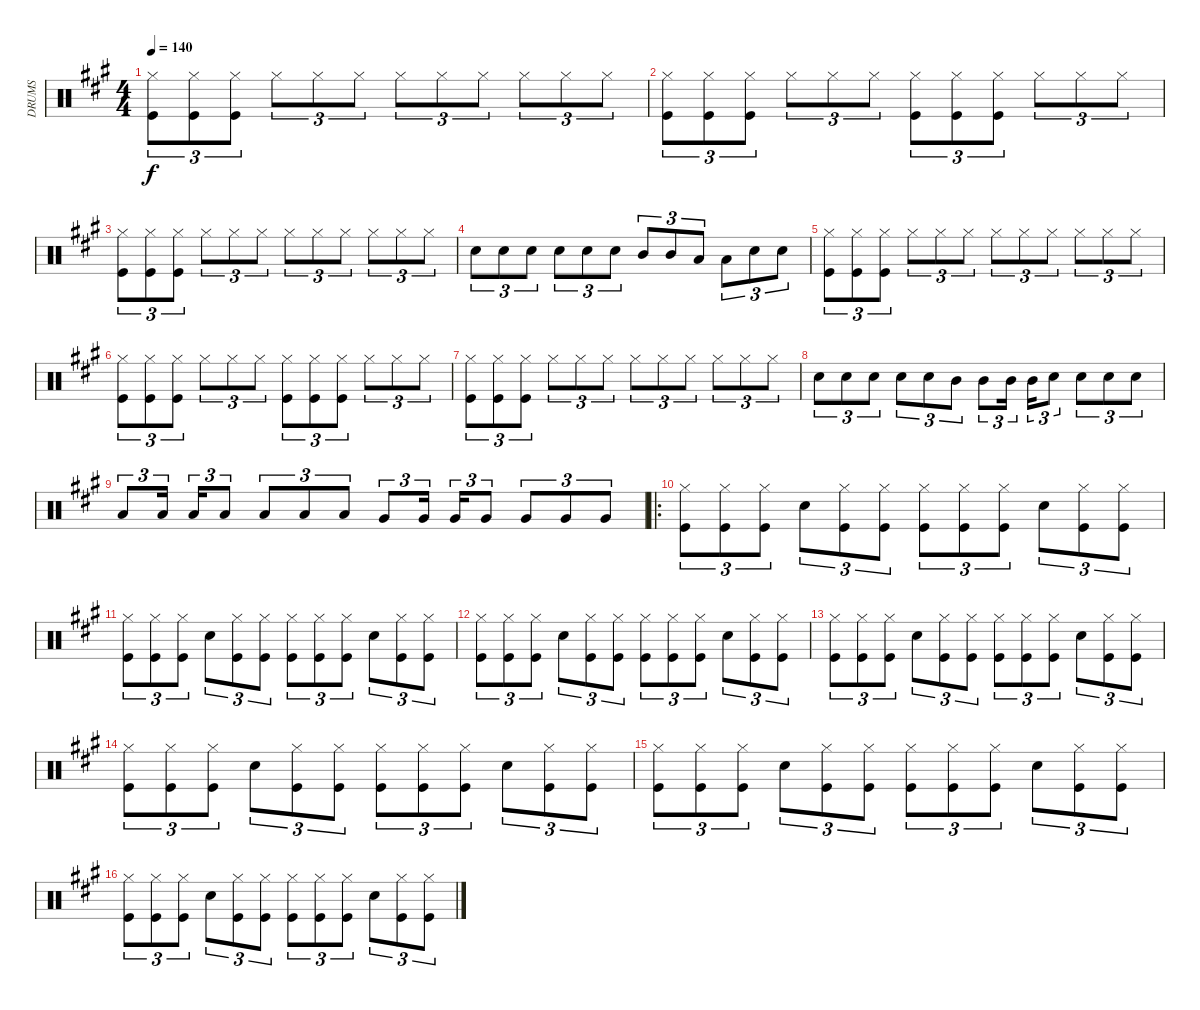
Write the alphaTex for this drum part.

\track ("DRUMS" "DRUMS") {instrument percussion}
\staff {score}
\articulation defaults
\ts (4 4)
\tempo 140
\clef neutral
\ks a
("Hi-Hat (closed)" "Kick (hit)").8{tu (3 2) dy f} ("Hi-Hat (closed)" "Kick (hit)").8{tu (3 2)} ("Hi-Hat (closed)" "Kick (hit)").8{tu (3 2)} "Hi-Hat (closed)".8{tu (3 2)} "Hi-Hat (closed)".8{tu (3 2)} "Hi-Hat (closed)".8{tu (3 2)} "Hi-Hat (closed)".8{tu (3 2)} "Hi-Hat (closed)".8{tu (3 2)} "Hi-Hat (closed)".8{tu (3 2)} "Hi-Hat (closed)".8{tu (3 2)} "Hi-Hat (closed)".8{tu (3 2)} "Hi-Hat (closed)".8{tu (3 2)} |
("Hi-Hat (closed)" "Kick (hit)").8{tu (3 2)} ("Hi-Hat (closed)" "Kick (hit)").8{tu (3 2)} ("Hi-Hat (closed)" "Kick (hit)").8{tu (3 2)} "Hi-Hat (closed)".8{tu (3 2)} "Hi-Hat (closed)".8{tu (3 2)} "Hi-Hat (closed)".8{tu (3 2)} ("Hi-Hat (closed)" "Kick (hit)").8{tu (3 2)} ("Hi-Hat (closed)" "Kick (hit)").8{tu (3 2)} ("Hi-Hat (closed)" "Kick (hit)").8{tu (3 2)} "Hi-Hat (closed)".8{tu (3 2)} "Hi-Hat (closed)".8{tu (3 2)} "Hi-Hat (closed)".8{tu (3 2)} |
("Hi-Hat (closed)" "Kick (hit)").8{tu (3 2)} ("Hi-Hat (closed)" "Kick (hit)").8{tu (3 2)} ("Hi-Hat (closed)" "Kick (hit)").8{tu (3 2)} "Hi-Hat (closed)".8{tu (3 2)} "Hi-Hat (closed)".8{tu (3 2)} "Hi-Hat (closed)".8{tu (3 2)} "Hi-Hat (closed)".8{tu (3 2)} "Hi-Hat (closed)".8{tu (3 2)} "Hi-Hat (closed)".8{tu (3 2)} "Hi-Hat (closed)".8{tu (3 2)} "Hi-Hat (closed)".8{tu (3 2)} "Hi-Hat (closed)".8{tu (3 2)} |
"Snare (hit) 2".8{tu (3 2)} "Snare (hit) 2".8{tu (3 2)} "Snare (hit) 2".8{tu (3 2)} "Snare (hit) 2".8{tu (3 2)} "Snare (hit) 2".8{tu (3 2)} "Snare (hit) 2".8{tu (3 2)} "Mid Tom (hit)".8{tu (3 2)} "Mid Tom (hit)".8{tu (3 2)} "Low Tom (hit)".8{tu (3 2)} "Low Tom (hit)".8{tu (3 2)} "Snare (hit) 2".8{tu (3 2)} "Snare (hit) 2".8{tu (3 2)} |
("Hi-Hat (closed)" "Kick (hit)").8{tu (3 2)} ("Hi-Hat (closed)" "Kick (hit)").8{tu (3 2)} ("Hi-Hat (closed)" "Kick (hit)").8{tu (3 2)} "Hi-Hat (closed)".8{tu (3 2)} "Hi-Hat (closed)".8{tu (3 2)} "Hi-Hat (closed)".8{tu (3 2)} "Hi-Hat (closed)".8{tu (3 2)} "Hi-Hat (closed)".8{tu (3 2)} "Hi-Hat (closed)".8{tu (3 2)} "Hi-Hat (closed)".8{tu (3 2)} "Hi-Hat (closed)".8{tu (3 2)} "Hi-Hat (closed)".8{tu (3 2)} |
("Hi-Hat (closed)" "Kick (hit)").8{tu (3 2)} ("Hi-Hat (closed)" "Kick (hit)").8{tu (3 2)} ("Hi-Hat (closed)" "Kick (hit)").8{tu (3 2)} "Hi-Hat (closed)".8{tu (3 2)} "Hi-Hat (closed)".8{tu (3 2)} "Hi-Hat (closed)".8{tu (3 2)} ("Hi-Hat (closed)" "Kick (hit)").8{tu (3 2)} ("Hi-Hat (closed)" "Kick (hit)").8{tu (3 2)} ("Hi-Hat (closed)" "Kick (hit)").8{tu (3 2)} "Hi-Hat (closed)".8{tu (3 2)} "Hi-Hat (closed)".8{tu (3 2)} "Hi-Hat (closed)".8{tu (3 2)} |
("Hi-Hat (closed)" "Kick (hit)").8{tu (3 2)} ("Hi-Hat (closed)" "Kick (hit)").8{tu (3 2)} ("Hi-Hat (closed)" "Kick (hit)").8{tu (3 2)} "Hi-Hat (closed)".8{tu (3 2)} "Hi-Hat (closed)".8{tu (3 2)} "Hi-Hat (closed)".8{tu (3 2)} "Hi-Hat (closed)".8{tu (3 2)} "Hi-Hat (closed)".8{tu (3 2)} "Hi-Hat (closed)".8{tu (3 2)} "Hi-Hat (closed)".8{tu (3 2)} "Hi-Hat (closed)".8{tu (3 2)} "Hi-Hat (closed)".8{tu (3 2)} |
"Snare (hit) 2".8{tu (3 2)} "Snare (hit) 2".8{tu (3 2)} "Snare (hit) 2".8{tu (3 2)} "Snare (hit) 2".8{tu (3 2)} "Snare (hit) 2".8{tu (3 2)} "Mid Tom (hit)".8{tu (3 2)} "Mid Tom (hit)".8{tu (3 2)} "Mid Tom (hit)".16{tu (3 2) beam splitsecondary} "Mid Tom (hit)".16{tu (3 2)} "Snare (hit) 2".8{tu (3 2)} "Snare (hit) 2".8{tu (3 2)} "Snare (hit) 2".8{tu (3 2)} "Snare (hit) 2".8{tu (3 2)} |
"Low Tom (hit)".8{tu (3 2)} "Low Tom (hit)".16{tu (3 2) beam splitsecondary} "Low Tom (hit)".16{tu (3 2)} "Low Tom (hit)".8{tu (3 2)} "Low Tom (hit)".8{tu (3 2)} "Low Tom (hit)".8{tu (3 2)} "Low Tom (hit)".8{tu (3 2)} "Very Low Tom (hit)".8{tu (3 2)} "Very Low Tom (hit)".16{tu (3 2) beam splitsecondary} "Very Low Tom (hit)".16{tu (3 2)} "Very Low Tom (hit)".8{tu (3 2)} "Very Low Tom (hit)".8{tu (3 2)} "Very Low Tom (hit)".8{tu (3 2)} "Very Low Tom (hit)".8{tu (3 2)} |
\ro
("Hi-Hat (closed)" "Kick (hit)").8{tu (3 2)} ("Hi-Hat (closed)" "Kick (hit)").8{tu (3 2)} ("Hi-Hat (closed)" "Kick (hit)").8{tu (3 2)} "Snare (hit) 2".8{tu (3 2)} ("Hi-Hat (closed)" "Kick (hit)").8{tu (3 2)} ("Hi-Hat (closed)" "Kick (hit)").8{tu (3 2)} ("Hi-Hat (closed)" "Kick (hit)").8{tu (3 2)} ("Hi-Hat (closed)" "Kick (hit)").8{tu (3 2)} ("Hi-Hat (closed)" "Kick (hit)").8{tu (3 2)} "Snare (hit) 2".8{tu (3 2)} ("Hi-Hat (closed)" "Kick (hit)").8{tu (3 2)} ("Hi-Hat (closed)" "Kick (hit)").8{tu (3 2)} |
("Hi-Hat (closed)" "Kick (hit)").8{tu (3 2)} ("Hi-Hat (closed)" "Kick (hit)").8{tu (3 2)} ("Hi-Hat (closed)" "Kick (hit)").8{tu (3 2)} "Snare (hit) 2".8{tu (3 2)} ("Hi-Hat (closed)" "Kick (hit)").8{tu (3 2)} ("Hi-Hat (closed)" "Kick (hit)").8{tu (3 2)} ("Hi-Hat (closed)" "Kick (hit)").8{tu (3 2)} ("Hi-Hat (closed)" "Kick (hit)").8{tu (3 2)} ("Hi-Hat (closed)" "Kick (hit)").8{tu (3 2)} "Snare (hit) 2".8{tu (3 2)} ("Hi-Hat (closed)" "Kick (hit)").8{tu (3 2)} ("Hi-Hat (closed)" "Kick (hit)").8{tu (3 2)} |
("Hi-Hat (closed)" "Kick (hit)").8{tu (3 2)} ("Hi-Hat (closed)" "Kick (hit)").8{tu (3 2)} ("Hi-Hat (closed)" "Kick (hit)").8{tu (3 2)} "Snare (hit) 2".8{tu (3 2)} ("Hi-Hat (closed)" "Kick (hit)").8{tu (3 2)} ("Hi-Hat (closed)" "Kick (hit)").8{tu (3 2)} ("Hi-Hat (closed)" "Kick (hit)").8{tu (3 2)} ("Hi-Hat (closed)" "Kick (hit)").8{tu (3 2)} ("Hi-Hat (closed)" "Kick (hit)").8{tu (3 2)} "Snare (hit) 2".8{tu (3 2)} ("Hi-Hat (closed)" "Kick (hit)").8{tu (3 2)} ("Hi-Hat (closed)" "Kick (hit)").8{tu (3 2)} |
("Hi-Hat (closed)" "Kick (hit)").8{tu (3 2)} ("Hi-Hat (closed)" "Kick (hit)").8{tu (3 2)} ("Hi-Hat (closed)" "Kick (hit)").8{tu (3 2)} "Snare (hit) 2".8{tu (3 2)} ("Hi-Hat (closed)" "Kick (hit)").8{tu (3 2)} ("Hi-Hat (closed)" "Kick (hit)").8{tu (3 2)} ("Hi-Hat (closed)" "Kick (hit)").8{tu (3 2)} ("Hi-Hat (closed)" "Kick (hit)").8{tu (3 2)} ("Hi-Hat (closed)" "Kick (hit)").8{tu (3 2)} "Snare (hit) 2".8{tu (3 2)} ("Hi-Hat (closed)" "Kick (hit)").8{tu (3 2)} ("Hi-Hat (closed)" "Kick (hit)").8{tu (3 2)} |
("Hi-Hat (closed)" "Kick (hit)").8{tu (3 2)} ("Hi-Hat (closed)" "Kick (hit)").8{tu (3 2)} ("Hi-Hat (closed)" "Kick (hit)").8{tu (3 2)} "Snare (hit) 2".8{tu (3 2)} ("Hi-Hat (closed)" "Kick (hit)").8{tu (3 2)} ("Hi-Hat (closed)" "Kick (hit)").8{tu (3 2)} ("Hi-Hat (closed)" "Kick (hit)").8{tu (3 2)} ("Hi-Hat (closed)" "Kick (hit)").8{tu (3 2)} ("Hi-Hat (closed)" "Kick (hit)").8{tu (3 2)} "Snare (hit) 2".8{tu (3 2)} ("Hi-Hat (closed)" "Kick (hit)").8{tu (3 2)} ("Hi-Hat (closed)" "Kick (hit)").8{tu (3 2)} |
("Hi-Hat (closed)" "Kick (hit)").8{tu (3 2)} ("Hi-Hat (closed)" "Kick (hit)").8{tu (3 2)} ("Hi-Hat (closed)" "Kick (hit)").8{tu (3 2)} "Snare (hit) 2".8{tu (3 2)} ("Hi-Hat (closed)" "Kick (hit)").8{tu (3 2)} ("Hi-Hat (closed)" "Kick (hit)").8{tu (3 2)} ("Hi-Hat (closed)" "Kick (hit)").8{tu (3 2)} ("Hi-Hat (closed)" "Kick (hit)").8{tu (3 2)} ("Hi-Hat (closed)" "Kick (hit)").8{tu (3 2)} "Snare (hit) 2".8{tu (3 2)} ("Hi-Hat (closed)" "Kick (hit)").8{tu (3 2)} ("Hi-Hat (closed)" "Kick (hit)").8{tu (3 2)} |
("Hi-Hat (closed)" "Kick (hit)").8{tu (3 2)} ("Hi-Hat (closed)" "Kick (hit)").8{tu (3 2)} ("Hi-Hat (closed)" "Kick (hit)").8{tu (3 2)} "Snare (hit) 2".8{tu (3 2)} ("Hi-Hat (closed)" "Kick (hit)").8{tu (3 2)} ("Hi-Hat (closed)" "Kick (hit)").8{tu (3 2)} ("Hi-Hat (closed)" "Kick (hit)").8{tu (3 2)} ("Hi-Hat (closed)" "Kick (hit)").8{tu (3 2)} ("Hi-Hat (closed)" "Kick (hit)").8{tu (3 2)} "Snare (hit) 2".8{tu (3 2)} ("Hi-Hat (closed)" "Kick (hit)").8{tu (3 2)} ("Hi-Hat (closed)" "Kick (hit)").8{tu (3 2)}
